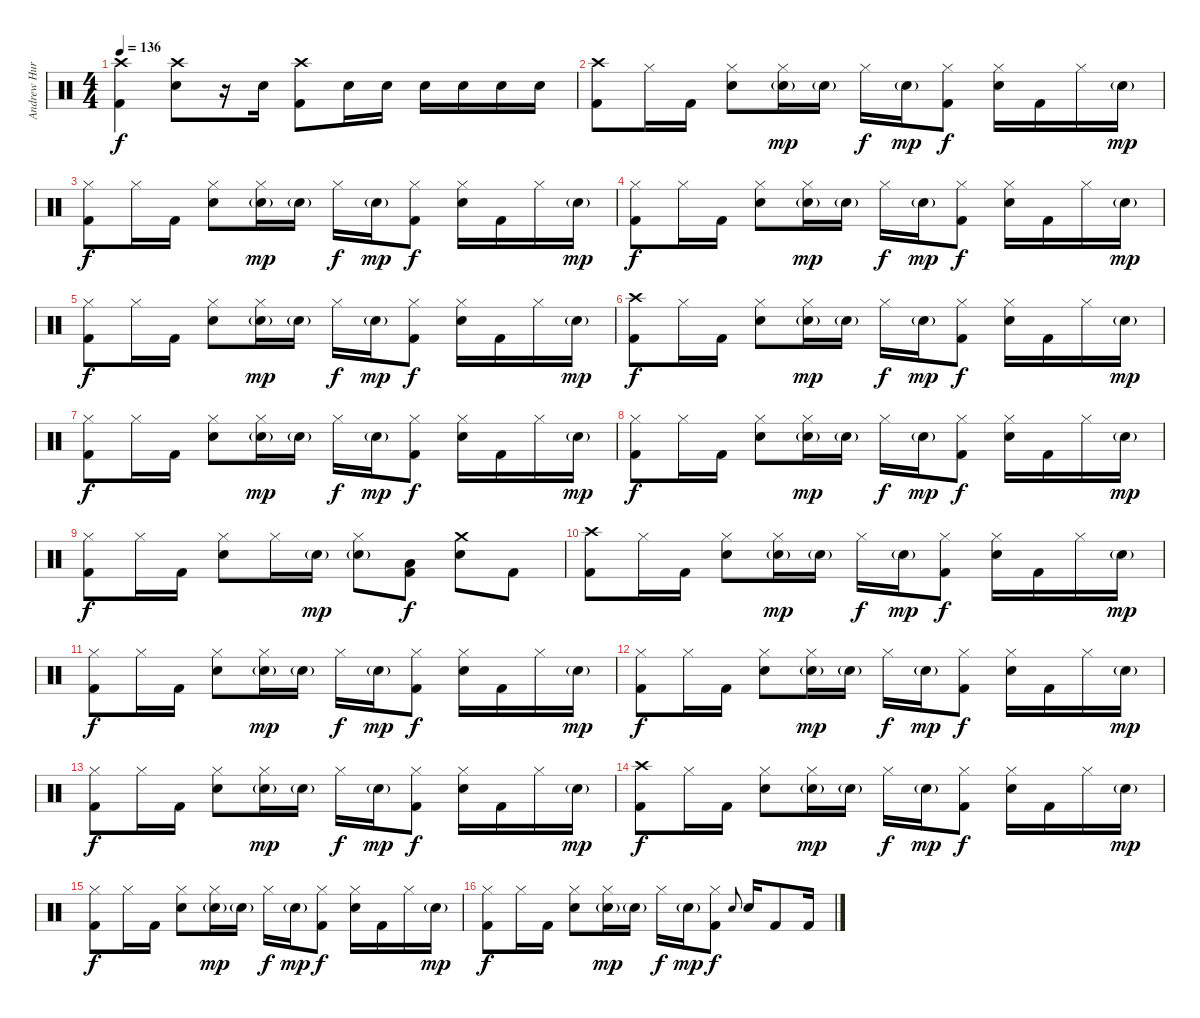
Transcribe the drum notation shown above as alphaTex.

\track ("Andrew Hurley (Drums)" "Andrew Hur") {instrument percussion}
\staff {score}
\articulation defaults
\ts (4 4)
\tempo 136
\clef neutral
\ks c
("Crash high (hit)" "Kick (hit) 2").4{dy f} ("Crash high (hit)" "Snare (hit) 2").8 r.16 "Snare (hit) 2".16 ("Crash high (hit)" "Kick (hit) 2").8 "Snare (hit) 2".16 "Snare (hit) 2".16 "Snare (hit) 2".16 "Snare (hit) 2".16 "Snare (hit) 2".16 "Snare (hit) 2".16 |
("Crash high (hit)" "Kick (hit) 2").8 "Hi-Hat (closed)".16 "Kick (hit) 2".16 ("Hi-Hat (closed)" "Snare (hit) 2").8 ("Hi-Hat (closed)" "Snare (hit) 2"{g}).16{dy mp} "Snare (hit) 2"{g}.16 "Hi-Hat (closed)".16{dy f} "Snare (hit) 2"{g}.16{dy mp} ("Hi-Hat (closed)" "Kick (hit) 2").8{dy f} ("Hi-Hat (closed)" "Snare (hit) 2").16 "Kick (hit) 2".16 "Hi-Hat (closed)".16 "Snare (hit) 2"{g}.16{dy mp} |
("Hi-Hat (closed)" "Kick (hit) 2").8{dy f} "Hi-Hat (closed)".16 "Kick (hit) 2".16 ("Hi-Hat (closed)" "Snare (hit) 2").8 ("Hi-Hat (closed)" "Snare (hit) 2"{g}).16{dy mp} "Snare (hit) 2"{g}.16 "Hi-Hat (closed)".16{dy f} "Snare (hit) 2"{g}.16{dy mp} ("Hi-Hat (closed)" "Kick (hit) 2").8{dy f} ("Hi-Hat (closed)" "Snare (hit) 2").16 "Kick (hit) 2".16 "Hi-Hat (closed)".16 "Snare (hit) 2"{g}.16{dy mp} |
("Hi-Hat (closed)" "Kick (hit) 2").8{dy f} "Hi-Hat (closed)".16 "Kick (hit) 2".16 ("Hi-Hat (closed)" "Snare (hit) 2").8 ("Hi-Hat (closed)" "Snare (hit) 2"{g}).16{dy mp} "Snare (hit) 2"{g}.16 "Hi-Hat (closed)".16{dy f} "Snare (hit) 2"{g}.16{dy mp} ("Hi-Hat (closed)" "Kick (hit) 2").8{dy f} ("Hi-Hat (closed)" "Snare (hit) 2").16 "Kick (hit) 2".16 "Hi-Hat (closed)".16 "Snare (hit) 2"{g}.16{dy mp} |
("Hi-Hat (closed)" "Kick (hit) 2").8{dy f} "Hi-Hat (closed)".16 "Kick (hit) 2".16 ("Hi-Hat (closed)" "Snare (hit) 2").8 ("Hi-Hat (closed)" "Snare (hit) 2"{g}).16{dy mp} "Snare (hit) 2"{g}.16 "Hi-Hat (closed)".16{dy f} "Snare (hit) 2"{g}.16{dy mp} ("Hi-Hat (closed)" "Kick (hit) 2").8{dy f} ("Hi-Hat (closed)" "Snare (hit) 2").16 "Kick (hit) 2".16 "Hi-Hat (closed)".16 "Snare (hit) 2"{g}.16{dy mp} |
("Crash high (hit)" "Kick (hit) 2").8{dy f} "Hi-Hat (closed)".16 "Kick (hit) 2".16 ("Hi-Hat (closed)" "Snare (hit) 2").8 ("Hi-Hat (closed)" "Snare (hit) 2"{g}).16{dy mp} "Snare (hit) 2"{g}.16 "Hi-Hat (closed)".16{dy f} "Snare (hit) 2"{g}.16{dy mp} ("Hi-Hat (closed)" "Kick (hit) 2").8{dy f} ("Hi-Hat (closed)" "Snare (hit) 2").16 "Kick (hit) 2".16 "Hi-Hat (closed)".16 "Snare (hit) 2"{g}.16{dy mp} |
("Hi-Hat (closed)" "Kick (hit) 2").8{dy f} "Hi-Hat (closed)".16 "Kick (hit) 2".16 ("Hi-Hat (closed)" "Snare (hit) 2").8 ("Hi-Hat (closed)" "Snare (hit) 2"{g}).16{dy mp} "Snare (hit) 2"{g}.16 "Hi-Hat (closed)".16{dy f} "Snare (hit) 2"{g}.16{dy mp} ("Hi-Hat (closed)" "Kick (hit) 2").8{dy f} ("Hi-Hat (closed)" "Snare (hit) 2").16 "Kick (hit) 2".16 "Hi-Hat (closed)".16 "Snare (hit) 2"{g}.16{dy mp} |
("Hi-Hat (closed)" "Kick (hit) 2").8{dy f} "Hi-Hat (closed)".16 "Kick (hit) 2".16 ("Hi-Hat (closed)" "Snare (hit) 2").8 ("Hi-Hat (closed)" "Snare (hit) 2"{g}).16{dy mp} "Snare (hit) 2"{g}.16 "Hi-Hat (closed)".16{dy f} "Snare (hit) 2"{g}.16{dy mp} ("Hi-Hat (closed)" "Kick (hit) 2").8{dy f} ("Hi-Hat (closed)" "Snare (hit) 2").16 "Kick (hit) 2".16 "Hi-Hat (closed)".16 "Snare (hit) 2"{g}.16{dy mp} |
("Hi-Hat (closed)" "Kick (hit) 2").8{dy f} "Hi-Hat (closed)".16 "Kick (hit) 2".16 ("Hi-Hat (closed)" "Snare (hit) 2").8 "Hi-Hat (closed)".16 "Snare (hit) 2"{g}.16{dy mp} ("Hi-Hat (closed)" "Snare (hit) 2"{g}).8 ("Low Tom (hit)" "Kick (hit) 2").8{dy f} ("Crash medium (hit)" "Snare (hit) 2").8 "Kick (hit) 2".8 |
("Crash high (hit)" "Kick (hit) 2").8 "Hi-Hat (closed)".16 "Kick (hit) 2".16 ("Hi-Hat (closed)" "Snare (hit) 2").8 ("Hi-Hat (closed)" "Snare (hit) 2"{g}).16{dy mp} "Snare (hit) 2"{g}.16 "Hi-Hat (closed)".16{dy f} "Snare (hit) 2"{g}.16{dy mp} ("Hi-Hat (closed)" "Kick (hit) 2").8{dy f} ("Hi-Hat (closed)" "Snare (hit) 2").16 "Kick (hit) 2".16 "Hi-Hat (closed)".16 "Snare (hit) 2"{g}.16{dy mp} |
("Hi-Hat (closed)" "Kick (hit) 2").8{dy f} "Hi-Hat (closed)".16 "Kick (hit) 2".16 ("Hi-Hat (closed)" "Snare (hit) 2").8 ("Hi-Hat (closed)" "Snare (hit) 2"{g}).16{dy mp} "Snare (hit) 2"{g}.16 "Hi-Hat (closed)".16{dy f} "Snare (hit) 2"{g}.16{dy mp} ("Hi-Hat (closed)" "Kick (hit) 2").8{dy f} ("Hi-Hat (closed)" "Snare (hit) 2").16 "Kick (hit) 2".16 "Hi-Hat (closed)".16 "Snare (hit) 2"{g}.16{dy mp} |
("Hi-Hat (closed)" "Kick (hit) 2").8{dy f} "Hi-Hat (closed)".16 "Kick (hit) 2".16 ("Hi-Hat (closed)" "Snare (hit) 2").8 ("Hi-Hat (closed)" "Snare (hit) 2"{g}).16{dy mp} "Snare (hit) 2"{g}.16 "Hi-Hat (closed)".16{dy f} "Snare (hit) 2"{g}.16{dy mp} ("Hi-Hat (closed)" "Kick (hit) 2").8{dy f} ("Hi-Hat (closed)" "Snare (hit) 2").16 "Kick (hit) 2".16 "Hi-Hat (closed)".16 "Snare (hit) 2"{g}.16{dy mp} |
("Hi-Hat (closed)" "Kick (hit) 2").8{dy f} "Hi-Hat (closed)".16 "Kick (hit) 2".16 ("Hi-Hat (closed)" "Snare (hit) 2").8 ("Hi-Hat (closed)" "Snare (hit) 2"{g}).16{dy mp} "Snare (hit) 2"{g}.16 "Hi-Hat (closed)".16{dy f} "Snare (hit) 2"{g}.16{dy mp} ("Hi-Hat (closed)" "Kick (hit) 2").8{dy f} ("Hi-Hat (closed)" "Snare (hit) 2").16 "Kick (hit) 2".16 "Hi-Hat (closed)".16 "Snare (hit) 2"{g}.16{dy mp} |
("Crash high (hit)" "Kick (hit) 2").8{dy f} "Hi-Hat (closed)".16 "Kick (hit) 2".16 ("Hi-Hat (closed)" "Snare (hit) 2").8 ("Hi-Hat (closed)" "Snare (hit) 2"{g}).16{dy mp} "Snare (hit) 2"{g}.16 "Hi-Hat (closed)".16{dy f} "Snare (hit) 2"{g}.16{dy mp} ("Hi-Hat (closed)" "Kick (hit) 2").8{dy f} ("Hi-Hat (closed)" "Snare (hit) 2").16 "Kick (hit) 2".16 "Hi-Hat (closed)".16 "Snare (hit) 2"{g}.16{dy mp} |
("Hi-Hat (closed)" "Kick (hit) 2").8{dy f} "Hi-Hat (closed)".16 "Kick (hit) 2".16 ("Hi-Hat (closed)" "Snare (hit) 2").8 ("Hi-Hat (closed)" "Snare (hit) 2"{g}).16{dy mp} "Snare (hit) 2"{g}.16 "Hi-Hat (closed)".16{dy f} "Snare (hit) 2"{g}.16{dy mp} ("Hi-Hat (closed)" "Kick (hit) 2").8{dy f} ("Hi-Hat (closed)" "Snare (hit) 2").16 "Kick (hit) 2".16 "Hi-Hat (closed)".16 "Snare (hit) 2"{g}.16{dy mp} |
("Hi-Hat (closed)" "Kick (hit) 2").8{dy f} "Hi-Hat (closed)".16 "Kick (hit) 2".16 ("Hi-Hat (closed)" "Snare (hit) 2").8 ("Hi-Hat (closed)" "Snare (hit) 2"{g}).16{dy mp} "Snare (hit) 2"{g}.16 "Hi-Hat (closed)".16{dy f} "Snare (hit) 2"{g}.16{dy mp} ("Hi-Hat (closed)" "Kick (hit) 2").8{dy f} "Snare (hit) 2".8{gr onbeat} "Snare (hit) 2".16 "Kick (hit) 2".8 "Kick (hit) 2".16
